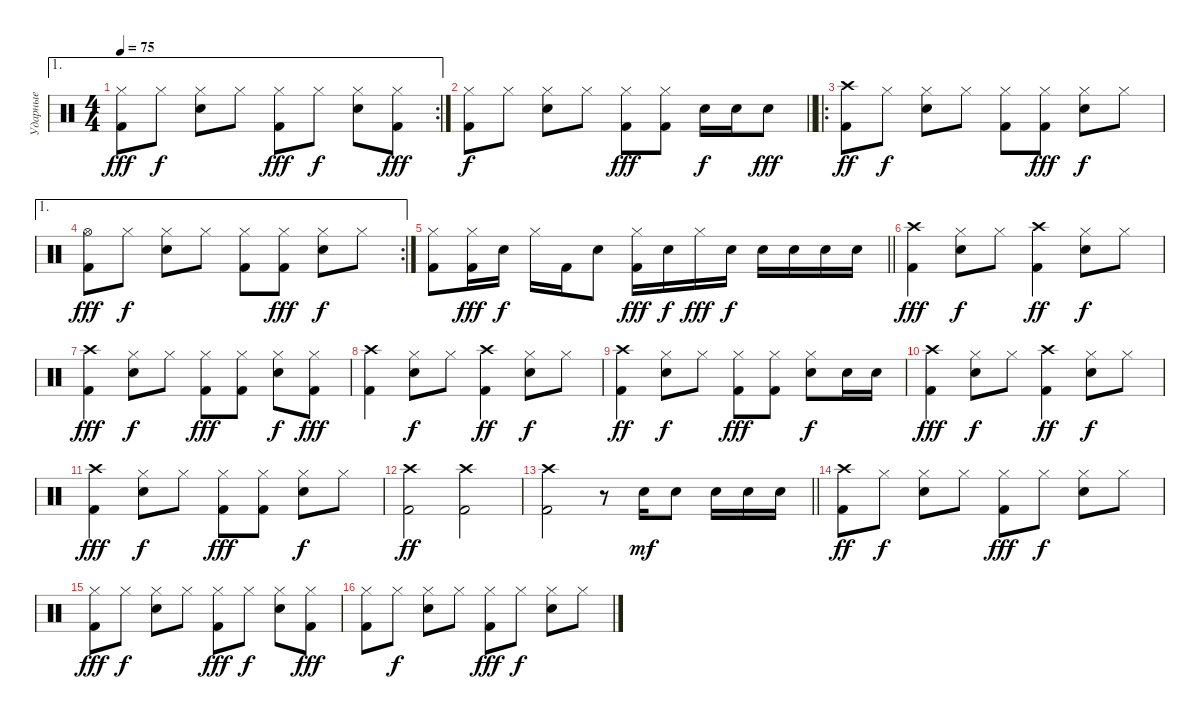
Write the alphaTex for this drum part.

\track ("Ударные" "Ударные") {instrument percussion}
\staff
\articulation defaults
\ae 1
\rc 2
\ts (4 4)
\tempo 75
\clef neutral
\ks c
("Kick (hit) 2" "Hi-Hat (closed)").8{dy fff} "Hi-Hat (closed)".8{dy f} ("Snare (hit) 2" "Hi-Hat (closed)").8 "Hi-Hat (closed)".8 ("Kick (hit) 2" "Hi-Hat (closed)").8{dy fff} "Hi-Hat (closed)".8{dy f} ("Snare (hit) 2" "Hi-Hat (closed)").8 ("Kick (hit) 2" "Hi-Hat (closed)").8{dy fff} |
\barLineRight lightlight
("Kick (hit) 2" "Hi-Hat (closed)").8{dy f} "Hi-Hat (closed)".8 ("Snare (hit) 2" "Hi-Hat (closed)").8 "Hi-Hat (closed)".8 ("Kick (hit) 2" "Hi-Hat (closed)").8{dy fff} ("Kick (hit) 2" "Hi-Hat (closed)").8 "Snare (hit) 2".16{dy f} "Snare (hit) 2".16 "Snare (hit) 2".8{dy fff} |
\ro
("Kick (hit) 2" "Crash high (hit)").8{dy ff} "Hi-Hat (closed)".8{dy f} ("Snare (hit) 2" "Hi-Hat (closed)").8 "Hi-Hat (closed)".8 ("Kick (hit) 2" "Hi-Hat (closed)").8 ("Kick (hit) 2" "Hi-Hat (closed)").8{dy fff} ("Snare (hit) 2" "Hi-Hat (closed)").8{dy f} "Hi-Hat (closed)".8 |
\ae 1
\rc 2
("Kick (hit) 2" "Hi-Hat (open)").8{dy fff} "Hi-Hat (closed)".8{dy f} ("Snare (hit) 2" "Hi-Hat (closed)").8 "Hi-Hat (closed)".8 ("Kick (hit) 2" "Hi-Hat (closed)").8 ("Kick (hit) 2" "Hi-Hat (closed)").8{dy fff} ("Snare (hit) 2" "Hi-Hat (closed)").8{dy f} "Hi-Hat (closed)".8 |
\barLineRight lightlight
("Kick (hit) 2" "Hi-Hat (closed)").8 ("Kick (hit) 2" "Hi-Hat (closed)").16{dy fff} "Snare (hit) 2".16{dy f} "Hi-Hat (closed)".16 "Kick (hit) 2".16 "Snare (hit) 2".8 ("Kick (hit) 2" "Hi-Hat (closed)").16{dy fff} "Snare (hit) 2".16{dy f} "Hi-Hat (closed)".16{dy fff} "Snare (hit) 2".16{dy f} "Snare (hit) 2".16 "Snare (hit) 2".16 "Snare (hit) 2".16 "Snare (hit) 2".16 |
("Kick (hit) 2" "Crash high (hit)").4{dy fff} ("Snare (hit) 2" "Hi-Hat (closed)").8{dy f} "Hi-Hat (closed)".8 ("Kick (hit) 2" "Crash high (hit)").4{dy ff} ("Snare (hit) 2" "Hi-Hat (closed)").8{dy f} "Hi-Hat (closed)".8 |
("Kick (hit) 2" "Crash high (hit)").4{dy fff} ("Snare (hit) 2" "Hi-Hat (closed)").8{dy f} "Hi-Hat (closed)".8 ("Kick (hit) 2" "Hi-Hat (closed)").8{dy fff} ("Kick (hit) 2" "Hi-Hat (closed)").8 ("Snare (hit) 2" "Hi-Hat (closed)").8{dy f} ("Kick (hit) 2" "Hi-Hat (closed)").8{dy fff} |
("Kick (hit) 2" "Crash high (hit)").4 ("Snare (hit) 2" "Hi-Hat (closed)").8{dy f} "Hi-Hat (closed)".8 ("Kick (hit) 2" "Crash high (hit)").4{dy ff} ("Snare (hit) 2" "Hi-Hat (closed)").8{dy f} "Hi-Hat (closed)".8 |
("Kick (hit) 2" "Crash high (hit)").4{dy ff} ("Snare (hit) 2" "Hi-Hat (closed)").8{dy f} "Hi-Hat (closed)".8 ("Kick (hit) 2" "Hi-Hat (closed)").8{dy fff} ("Kick (hit) 2" "Hi-Hat (closed)").8 ("Snare (hit) 2" "Hi-Hat (closed)").8{dy f} "Snare (hit) 2".16 "Snare (hit) 2".16 |
("Kick (hit) 2" "Crash high (hit)").4{dy fff} ("Snare (hit) 2" "Hi-Hat (closed)").8{dy f} "Hi-Hat (closed)".8 ("Kick (hit) 2" "Crash high (hit)").4{dy ff} ("Snare (hit) 2" "Hi-Hat (closed)").8{dy f} "Hi-Hat (closed)".8 |
("Kick (hit) 2" "Crash high (hit)").4{dy fff} ("Snare (hit) 2" "Hi-Hat (closed)").8{dy f} "Hi-Hat (closed)".8 ("Kick (hit) 2" "Hi-Hat (closed)").8{dy fff} ("Kick (hit) 2" "Hi-Hat (closed)").8 ("Snare (hit) 2" "Hi-Hat (closed)").8{dy f} "Hi-Hat (closed)".8 |
("Kick (hit) 2" "Crash high (hit)").2{dy ff} ("Kick (hit) 2" "Crash high (hit)").2 |
\barLineRight lightlight
("Kick (hit) 2" "Crash high (hit)").2 r.8 "Snare (hit) 2".16{dy mf} "Snare (hit) 2".8 "Snare (hit) 2".16 "Snare (hit) 2".16 "Snare (hit) 2".16 |
("Kick (hit) 2" "Crash high (hit)").8{dy ff} "Hi-Hat (closed)".8{dy f} ("Snare (hit) 2" "Hi-Hat (closed)").8 "Hi-Hat (closed)".8 ("Kick (hit) 2" "Hi-Hat (closed)").8{dy fff} "Hi-Hat (closed)".8{dy f} ("Snare (hit) 2" "Hi-Hat (closed)").8 "Hi-Hat (closed)".8 |
("Kick (hit) 2" "Hi-Hat (closed)").8{dy fff} "Hi-Hat (closed)".8{dy f} ("Snare (hit) 2" "Hi-Hat (closed)").8 "Hi-Hat (closed)".8 ("Kick (hit) 2" "Hi-Hat (closed)").8{dy fff} "Hi-Hat (closed)".8{dy f} ("Snare (hit) 2" "Hi-Hat (closed)").8 ("Kick (hit) 2" "Hi-Hat (closed)").8{dy fff} |
("Kick (hit) 2" "Hi-Hat (closed)").8 "Hi-Hat (closed)".8{dy f} ("Snare (hit) 2" "Hi-Hat (closed)").8 "Hi-Hat (closed)".8 ("Kick (hit) 2" "Hi-Hat (closed)").8{dy fff} "Hi-Hat (closed)".8{dy f} ("Snare (hit) 2" "Hi-Hat (closed)").8 "Hi-Hat (closed)".8
